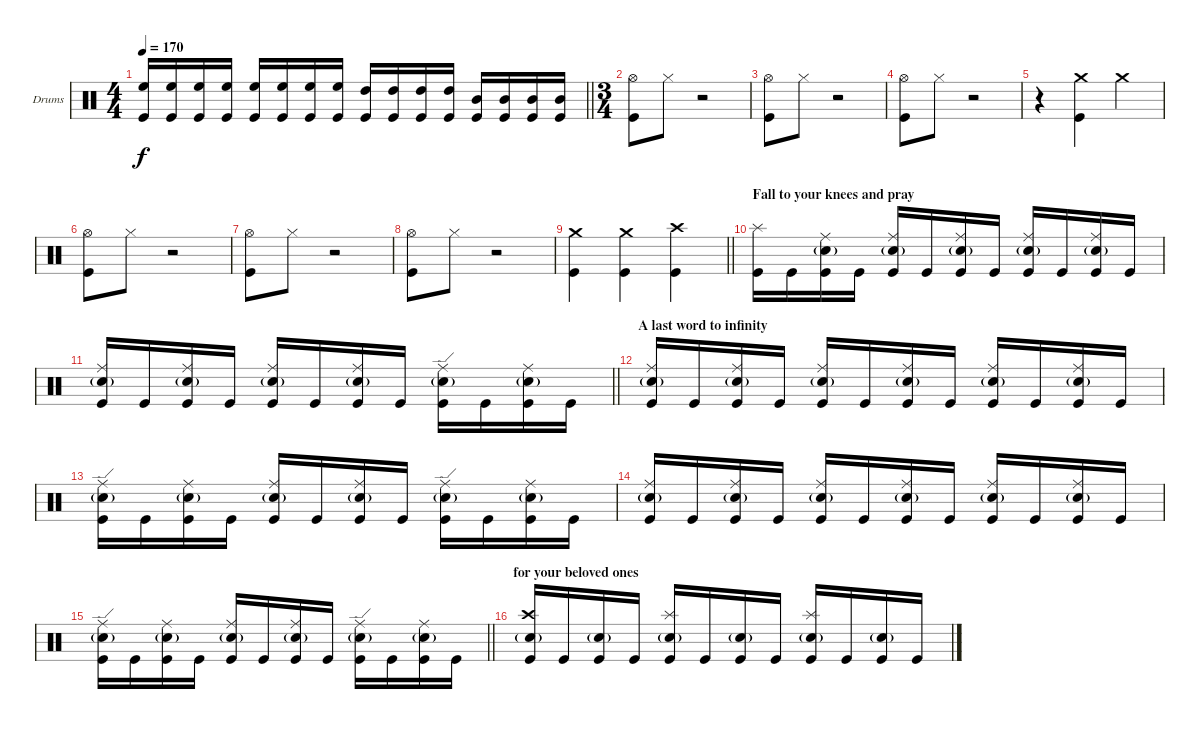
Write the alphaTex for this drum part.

\bracketExtendMode groupsimilarinstruments
\firstSystemTrackNameOrientation horizontal
\otherSystemsTrackNameOrientation horizontal
\track ("Drumkit" "Drums") {instrument percussion}
\staff {score}
\articulation defaults
\ts (4 4)
\tempo 170
\clef neutral
\barLineRight lightlight
\ks c
("High Floor Tom (hit)" "Kick (hit)").16{dy f} ("High Floor Tom (hit)" "Kick (hit)").16 ("High Floor Tom (hit)" "Kick (hit)").16 ("High Floor Tom (hit)" "Kick (hit)").16 ("High Floor Tom (hit)" "Kick (hit)").16 ("High Floor Tom (hit)" "Kick (hit)").16 ("High Floor Tom (hit)" "Kick (hit)").16 ("High Floor Tom (hit)" "Kick (hit)").16 ("High Tom (hit)" "Kick (hit)").16 ("High Tom (hit)" "Kick (hit)").16 ("High Tom (hit)" "Kick (hit)").16 ("High Tom (hit)" "Kick (hit)").16 ("Mid Tom (hit)" "Kick (hit)").16 ("Mid Tom (hit)" "Kick (hit)").16 ("Mid Tom (hit)" "Kick (hit)").16 ("Mid Tom (hit)" "Kick (hit)").16 |
\ts (3 4)
\beaming (8 2 2 2)
("Hi-Hat (open)" "Kick (hit)").8 "Hi-Hat (closed)".8 r.2 |
("Hi-Hat (open)" "Kick (hit)").8 "Hi-Hat (closed)".8 r.2 |
("Hi-Hat (open)" "Kick (hit)").8 "Hi-Hat (closed)".8 r.2 |
r.4 ("Crash medium (hit)" "Kick (hit)").4 "Crash medium (hit)".4 |
("Hi-Hat (open)" "Kick (hit)").8 "Hi-Hat (closed)".8 r.2 |
("Hi-Hat (open)" "Kick (hit)").8 "Hi-Hat (closed)".8 r.2 |
("Hi-Hat (open)" "Kick (hit)").8 "Hi-Hat (closed)".8 r.2 |
\barLineRight lightlight
("Crash medium (hit)" "Kick (hit)").4 ("Crash medium (hit)" "Kick (hit)").4 ("Crash high (hit)" "Kick (hit)").4 |
\section ("" "Fall to your knees and pray")
("Splash (hit)" "Kick (hit)").16 "Kick (hit)".16 ("Ride (middle)" "Snare (hit) 2"{g} "Kick (hit)").16 "Kick (hit)".16 ("Ride (middle)" "Snare (hit) 2"{g} "Kick (hit)").16 "Kick (hit)".16 ("Ride (middle)" "Snare (hit) 2"{g} "Kick (hit)").16 "Kick (hit)".16 ("Ride (middle)" "Snare (hit) 2"{g} "Kick (hit)").16 "Kick (hit)".16 ("Ride (middle)" "Snare (hit) 2"{g} "Kick (hit)").16 "Kick (hit)".16 |
\barLineRight lightlight
("Ride (middle)" "Snare (hit) 2"{g} "Kick (hit)").16 "Kick (hit)".16 ("Ride (middle)" "Snare (hit) 2"{g} "Kick (hit)").16 "Kick (hit)".16 ("Ride (middle)" "Snare (hit) 2"{g} "Kick (hit)").16 "Kick (hit)".16 ("Ride (middle)" "Snare (hit) 2"{g} "Kick (hit)").16 "Kick (hit)".16 ("Ride (edge)" "Snare (hit) 2"{g} "Kick (hit)").16 "Kick (hit)".16 ("Ride (middle)" "Snare (hit) 2"{g} "Kick (hit)").16 "Kick (hit)".16 |
\section ("" "A last word to infinity")
("Ride (middle)" "Snare (hit) 2"{g} "Kick (hit)").16 "Kick (hit)".16 ("Ride (middle)" "Snare (hit) 2"{g} "Kick (hit)").16 "Kick (hit)".16 ("Ride (middle)" "Snare (hit) 2"{g} "Kick (hit)").16 "Kick (hit)".16 ("Ride (middle)" "Snare (hit) 2"{g} "Kick (hit)").16 "Kick (hit)".16 ("Ride (middle)" "Snare (hit) 2"{g} "Kick (hit)").16 "Kick (hit)".16 ("Ride (middle)" "Snare (hit) 2"{g} "Kick (hit)").16 "Kick (hit)".16 |
("Ride (edge)" "Snare (hit) 2"{g} "Kick (hit)").16 "Kick (hit)".16 ("Ride (middle)" "Snare (hit) 2"{g} "Kick (hit)").16 "Kick (hit)".16 ("Ride (middle)" "Snare (hit) 2"{g} "Kick (hit)").16 "Kick (hit)".16 ("Ride (middle)" "Snare (hit) 2"{g} "Kick (hit)").16 "Kick (hit)".16 ("Ride (edge)" "Snare (hit) 2"{g} "Kick (hit)").16 "Kick (hit)".16 ("Ride (middle)" "Snare (hit) 2"{g} "Kick (hit)").16 "Kick (hit)".16 |
("Ride (middle)" "Snare (hit) 2"{g} "Kick (hit)").16 "Kick (hit)".16 ("Ride (middle)" "Snare (hit) 2"{g} "Kick (hit)").16 "Kick (hit)".16 ("Ride (middle)" "Snare (hit) 2"{g} "Kick (hit)").16 "Kick (hit)".16 ("Ride (middle)" "Snare (hit) 2"{g} "Kick (hit)").16 "Kick (hit)".16 ("Ride (middle)" "Snare (hit) 2"{g} "Kick (hit)").16 "Kick (hit)".16 ("Ride (middle)" "Snare (hit) 2"{g} "Kick (hit)").16 "Kick (hit)".16 |
\barLineRight lightlight
("Ride (edge)" "Snare (hit) 2"{g} "Kick (hit)").16 "Kick (hit)".16 ("Ride (middle)" "Snare (hit) 2"{g} "Kick (hit)").16 "Kick (hit)".16 ("Ride (middle)" "Snare (hit) 2"{g} "Kick (hit)").16 "Kick (hit)".16 ("Ride (middle)" "Snare (hit) 2"{g} "Kick (hit)").16 "Kick (hit)".16 ("Ride (edge)" "Snare (hit) 2"{g} "Kick (hit)").16 "Kick (hit)".16 ("Ride (middle)" "Snare (hit) 2"{g} "Kick (hit)").16 "Kick (hit)".16 |
\section ("" "for your beloved ones")
("Crash high (hit)" "Snare (hit) 2"{g} "Kick (hit)").16 "Kick (hit)".16 ("Snare (hit) 2"{g} "Kick (hit)").16 "Kick (hit)".16 ("Splash (hit)" "Snare (hit) 2"{g} "Kick (hit)").16 "Kick (hit)".16 ("Snare (hit) 2"{g} "Kick (hit)").16 "Kick (hit)".16 ("Splash (hit)" "Snare (hit) 2"{g} "Kick (hit)").16 "Kick (hit)".16 ("Snare (hit) 2"{g} "Kick (hit)").16 "Kick (hit)".16
